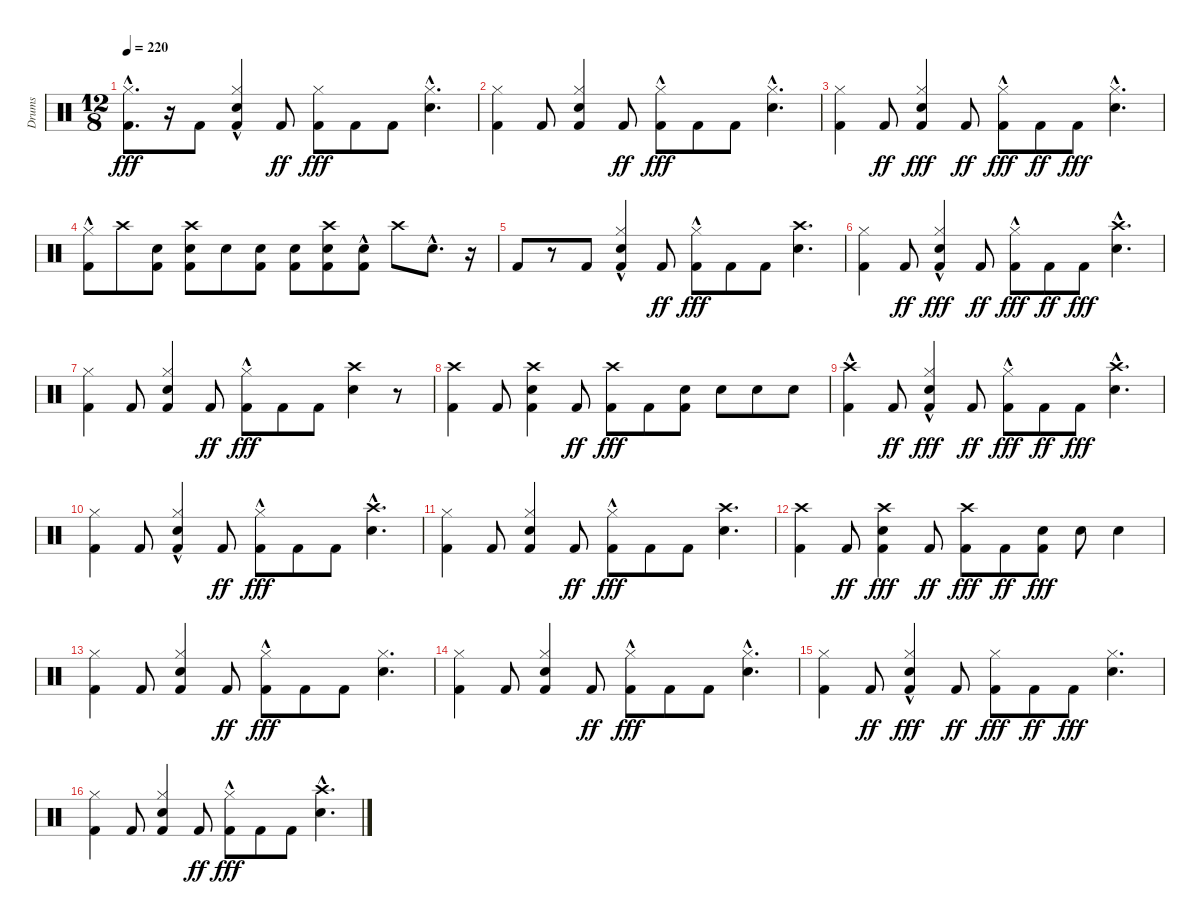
\track ("Drums" "Drums") {instrument percussion}
\staff {score}
\articulation defaults
\ts (12 8)
\tempo 220
\clef neutral
\ks c
("Kick (hit) 2" "Hi-Hat (closed)"{hac}).8{d dy fff} r.16 "Kick (hit) 2".8 ("Kick (hit) 2" "Snare (hit) 2" "Hi-Hat (closed)"{hac}).4 "Kick (hit) 2".8{dy ff} ("Kick (hit) 2" "Hi-Hat (closed)").8{dy fff} "Kick (hit) 2".8 "Kick (hit) 2".8 ("Snare (hit) 2" "Hi-Hat (closed)"{hac}).4{d} |
("Kick (hit) 2" "Hi-Hat (closed)").4 "Kick (hit) 2".8 ("Kick (hit) 2" "Snare (hit) 2" "Hi-Hat (closed)").4 "Kick (hit) 2".8{dy ff} ("Kick (hit) 2" "Hi-Hat (closed)"{hac}).8{dy fff} "Kick (hit) 2".8 "Kick (hit) 2".8 ("Snare (hit) 2" "Hi-Hat (closed)"{hac}).4{d} |
("Kick (hit) 2" "Hi-Hat (closed)").4 "Kick (hit) 2".8{dy ff} ("Kick (hit) 2" "Snare (hit) 2" "Hi-Hat (closed)").4{dy fff} "Kick (hit) 2".8{dy ff} ("Kick (hit) 2" "Hi-Hat (closed)"{hac}).8{dy fff} "Kick (hit) 2".8{dy ff} "Kick (hit) 2".8{dy fff} ("Snare (hit) 2" "Hi-Hat (closed)"{hac}).4{d} |
("Kick (hit) 2" "Hi-Hat (closed)"{hac}).8 "Crash high (hit)".8 ("Kick (hit) 2" "Snare (hit) 2").8 ("Kick (hit) 2" "Snare (hit) 2" "Crash high (hit)").8 "Snare (hit) 2".8 ("Kick (hit) 2" "Snare (hit) 2").8 ("Kick (hit) 2" "Snare (hit) 2").8 ("Kick (hit) 2" "Snare (hit) 2" "Crash high (hit)").8 ("Kick (hit) 2" "Snare (hit) 2"{hac}).8 "Crash high (hit)".8 "Snare (hit) 2"{hac}.8{d} r.16 |
"Kick (hit) 2".8 r.8 "Kick (hit) 2".8 ("Kick (hit) 2" "Snare (hit) 2" "Hi-Hat (closed)"{hac}).4 "Kick (hit) 2".8{dy ff} ("Kick (hit) 2" "Hi-Hat (closed)"{hac}).8{dy fff} "Kick (hit) 2".8 "Kick (hit) 2".8 ("Snare (hit) 2" "Crash high (hit)").4{d} |
("Kick (hit) 2" "Hi-Hat (closed)").4 "Kick (hit) 2".8{dy ff} ("Kick (hit) 2" "Snare (hit) 2" "Hi-Hat (closed)"{hac}).4{dy fff} "Kick (hit) 2".8{dy ff} ("Kick (hit) 2" "Hi-Hat (closed)"{hac}).8{dy fff} "Kick (hit) 2".8{dy ff} "Kick (hit) 2".8{dy fff} ("Snare (hit) 2" "Crash high (hit)"{hac}).4{d} |
("Kick (hit) 2" "Hi-Hat (closed)").4 "Kick (hit) 2".8 ("Kick (hit) 2" "Snare (hit) 2" "Hi-Hat (closed)").4 "Kick (hit) 2".8{dy ff} ("Kick (hit) 2" "Hi-Hat (closed)"{hac}).8{dy fff} "Kick (hit) 2".8 "Kick (hit) 2".8 ("Snare (hit) 2" "Crash high (hit)").4 r.8 |
("Kick (hit) 2" "Crash high (hit)").4 "Kick (hit) 2".8 ("Kick (hit) 2" "Snare (hit) 2" "Crash high (hit)").4 "Kick (hit) 2".8{dy ff} ("Kick (hit) 2" "Crash high (hit)").8{dy fff} "Kick (hit) 2".8 ("Kick (hit) 2" "Snare (hit) 2").8 "Snare (hit) 2".8 "Snare (hit) 2".8 "Snare (hit) 2".8 |
("Kick (hit) 2" "Crash high (hit)"{hac}).4 "Kick (hit) 2".8{dy ff} ("Kick (hit) 2" "Snare (hit) 2" "Hi-Hat (closed)"{hac}).4{dy fff} "Kick (hit) 2".8{dy ff} ("Kick (hit) 2" "Hi-Hat (closed)"{hac}).8{dy fff} "Kick (hit) 2".8{dy ff} "Kick (hit) 2".8{dy fff} ("Snare (hit) 2" "Crash high (hit)"{hac}).4{d} |
("Kick (hit) 2" "Hi-Hat (closed)").4 "Kick (hit) 2".8 ("Kick (hit) 2" "Snare (hit) 2" "Hi-Hat (closed)"{hac}).4 "Kick (hit) 2".8{dy ff} ("Kick (hit) 2" "Hi-Hat (closed)"{hac}).8{dy fff} "Kick (hit) 2".8 "Kick (hit) 2".8 ("Snare (hit) 2" "Crash high (hit)"{hac}).4{d} |
("Kick (hit) 2" "Hi-Hat (closed)").4 "Kick (hit) 2".8 ("Kick (hit) 2" "Snare (hit) 2" "Hi-Hat (closed)").4 "Kick (hit) 2".8{dy ff} ("Kick (hit) 2" "Hi-Hat (closed)"{hac}).8{dy fff} "Kick (hit) 2".8 "Kick (hit) 2".8 ("Snare (hit) 2" "Crash high (hit)").4{d} |
("Kick (hit) 2" "Crash high (hit)").4 "Kick (hit) 2".8{dy ff} ("Kick (hit) 2" "Snare (hit) 2" "Crash high (hit)").4{dy fff} "Kick (hit) 2".8{dy ff} ("Kick (hit) 2" "Crash high (hit)").8{dy fff} "Kick (hit) 2".8{dy ff} ("Kick (hit) 2" "Snare (hit) 2").8{dy fff} "Snare (hit) 2".8 "Snare (hit) 2".4 |
("Kick (hit) 2" "Hi-Hat (closed)").4 "Kick (hit) 2".8 ("Kick (hit) 2" "Snare (hit) 2" "Hi-Hat (closed)").4 "Kick (hit) 2".8{dy ff} ("Kick (hit) 2" "Hi-Hat (closed)"{hac}).8{dy fff} "Kick (hit) 2".8 "Kick (hit) 2".8 ("Snare (hit) 2" "Hi-Hat (closed)").4{d} |
("Kick (hit) 2" "Hi-Hat (closed)").4 "Kick (hit) 2".8 ("Kick (hit) 2" "Snare (hit) 2" "Hi-Hat (closed)").4 "Kick (hit) 2".8{dy ff} ("Kick (hit) 2" "Hi-Hat (closed)"{hac}).8{dy fff} "Kick (hit) 2".8 "Kick (hit) 2".8 ("Snare (hit) 2" "Hi-Hat (closed)"{hac}).4{d} |
("Kick (hit) 2" "Hi-Hat (closed)").4 "Kick (hit) 2".8{dy ff} ("Kick (hit) 2" "Snare (hit) 2" "Hi-Hat (closed)"{hac}).4{dy fff} "Kick (hit) 2".8{dy ff} ("Kick (hit) 2" "Hi-Hat (closed)").8{dy fff} "Kick (hit) 2".8{dy ff} "Kick (hit) 2".8{dy fff} ("Snare (hit) 2" "Hi-Hat (closed)").4{d} |
("Kick (hit) 2" "Hi-Hat (closed)").4 "Kick (hit) 2".8 ("Kick (hit) 2" "Snare (hit) 2" "Hi-Hat (closed)").4 "Kick (hit) 2".8{dy ff} ("Kick (hit) 2" "Hi-Hat (closed)"{hac}).8{dy fff} "Kick (hit) 2".8 "Kick (hit) 2".8 ("Snare (hit) 2" "Crash high (hit)"{hac}).4{d}
